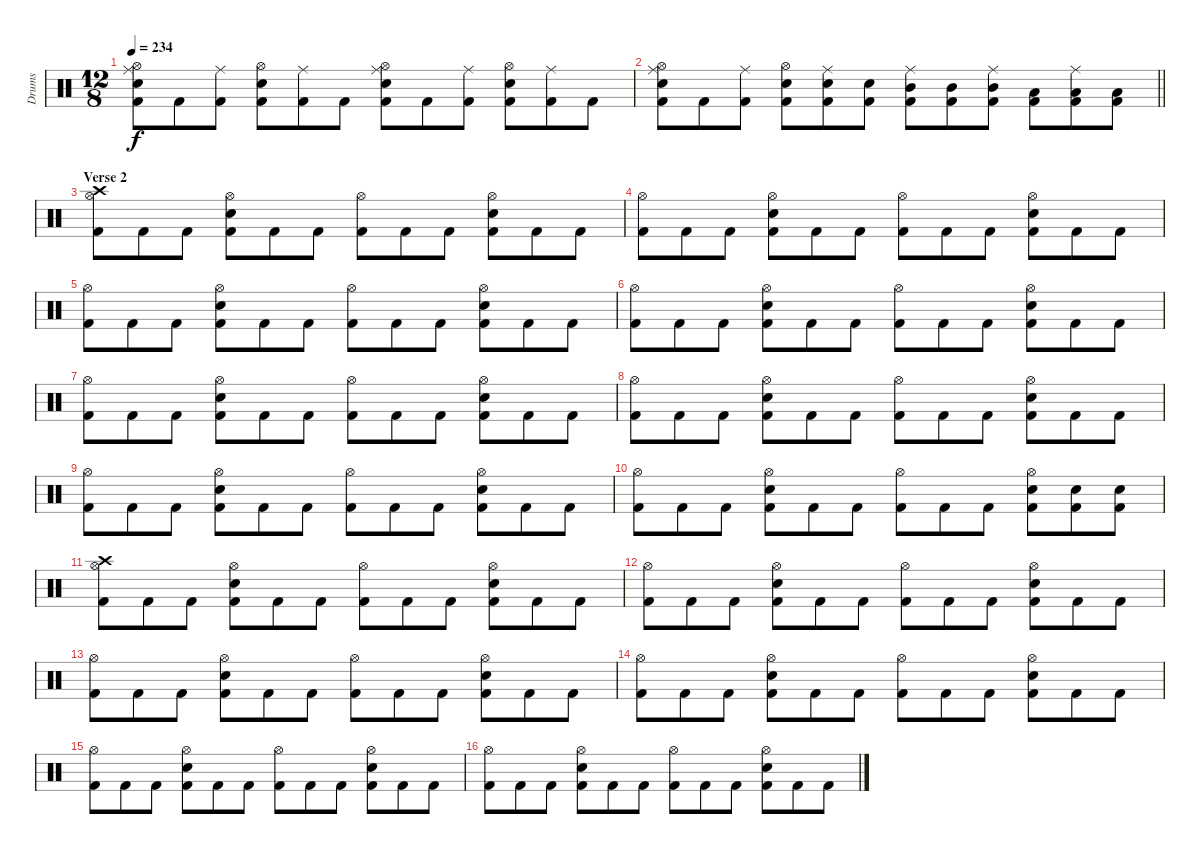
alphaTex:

\track ("Drums" "Drums") {instrument percussion}
\staff {score}
\articulation defaults
\ts (12 8)
\tempo 234
\clef neutral
\ks c
("Ride (middle)" "Hi-Hat (open)" "Snare (hit) 2" "Kick (hit) 2").8{dy f} "Kick (hit) 2".8 ("Ride (middle)" "Kick (hit) 2").8 ("Hi-Hat (open)" "Snare (hit) 2" "Kick (hit) 2").8 ("Ride (middle)" "Kick (hit) 2").8 "Kick (hit) 2".8 ("Ride (middle)" "Hi-Hat (open)" "Snare (hit) 2" "Kick (hit) 2").8 "Kick (hit) 2".8 ("Ride (middle)" "Kick (hit) 2").8 ("Hi-Hat (open)" "Snare (hit) 2" "Kick (hit) 2").8 ("Ride (middle)" "Kick (hit) 2").8 "Kick (hit) 2".8 |
\barLineRight lightlight
("Ride (middle)" "Hi-Hat (open)" "Snare (hit) 2" "Kick (hit) 2").8 "Kick (hit) 2".8 ("Ride (middle)" "Kick (hit) 2").8 ("Hi-Hat (open)" "Snare (hit) 2" "Kick (hit) 2").8 ("Ride (middle)" "Snare (hit) 2" "Kick (hit) 2").8 ("Snare (hit) 2" "Kick (hit) 2").8 ("Ride (middle)" "Mid Tom (hit)" "Kick (hit) 2").8 ("Mid Tom (hit)" "Kick (hit) 2").8 ("Ride (middle)" "Mid Tom (hit)" "Kick (hit) 2").8 ("Low Tom (hit)" "Kick (hit) 2").8 ("Ride (middle)" "Low Tom (hit)" "Kick (hit) 2").8 ("Low Tom (hit)" "Kick (hit) 2").8 |
\section ("" "Verse 2")
("Crash high (hit)" "Hi-Hat (open)" "Kick (hit) 2").8 "Kick (hit) 2".8 "Kick (hit) 2".8 ("Hi-Hat (open)" "Snare (hit) 2" "Kick (hit) 2").8 "Kick (hit) 2".8 "Kick (hit) 2".8 ("Hi-Hat (open)" "Kick (hit) 2").8 "Kick (hit) 2".8 "Kick (hit) 2".8 ("Hi-Hat (open)" "Snare (hit) 2" "Kick (hit) 2").8 "Kick (hit) 2".8 "Kick (hit) 2".8 |
("Hi-Hat (open)" "Kick (hit) 2").8 "Kick (hit) 2".8 "Kick (hit) 2".8 ("Hi-Hat (open)" "Snare (hit) 2" "Kick (hit) 2").8 "Kick (hit) 2".8 "Kick (hit) 2".8 ("Hi-Hat (open)" "Kick (hit) 2").8 "Kick (hit) 2".8 "Kick (hit) 2".8 ("Hi-Hat (open)" "Snare (hit) 2" "Kick (hit) 2").8 "Kick (hit) 2".8 "Kick (hit) 2".8 |
("Hi-Hat (open)" "Kick (hit) 2").8 "Kick (hit) 2".8 "Kick (hit) 2".8 ("Hi-Hat (open)" "Snare (hit) 2" "Kick (hit) 2").8 "Kick (hit) 2".8 "Kick (hit) 2".8 ("Hi-Hat (open)" "Kick (hit) 2").8 "Kick (hit) 2".8 "Kick (hit) 2".8 ("Hi-Hat (open)" "Snare (hit) 2" "Kick (hit) 2").8 "Kick (hit) 2".8 "Kick (hit) 2".8 |
("Hi-Hat (open)" "Kick (hit) 2").8 "Kick (hit) 2".8 "Kick (hit) 2".8 ("Hi-Hat (open)" "Snare (hit) 2" "Kick (hit) 2").8 "Kick (hit) 2".8 "Kick (hit) 2".8 ("Hi-Hat (open)" "Kick (hit) 2").8 "Kick (hit) 2".8 "Kick (hit) 2".8 ("Hi-Hat (open)" "Snare (hit) 2" "Kick (hit) 2").8 "Kick (hit) 2".8 "Kick (hit) 2".8 |
("Hi-Hat (open)" "Kick (hit) 2").8 "Kick (hit) 2".8 "Kick (hit) 2".8 ("Hi-Hat (open)" "Snare (hit) 2" "Kick (hit) 2").8 "Kick (hit) 2".8 "Kick (hit) 2".8 ("Hi-Hat (open)" "Kick (hit) 2").8 "Kick (hit) 2".8 "Kick (hit) 2".8 ("Hi-Hat (open)" "Snare (hit) 2" "Kick (hit) 2").8 "Kick (hit) 2".8 "Kick (hit) 2".8 |
("Hi-Hat (open)" "Kick (hit) 2").8 "Kick (hit) 2".8 "Kick (hit) 2".8 ("Hi-Hat (open)" "Snare (hit) 2" "Kick (hit) 2").8 "Kick (hit) 2".8 "Kick (hit) 2".8 ("Hi-Hat (open)" "Kick (hit) 2").8 "Kick (hit) 2".8 "Kick (hit) 2".8 ("Hi-Hat (open)" "Snare (hit) 2" "Kick (hit) 2").8 "Kick (hit) 2".8 "Kick (hit) 2".8 |
("Hi-Hat (open)" "Kick (hit) 2").8 "Kick (hit) 2".8 "Kick (hit) 2".8 ("Hi-Hat (open)" "Snare (hit) 2" "Kick (hit) 2").8 "Kick (hit) 2".8 "Kick (hit) 2".8 ("Hi-Hat (open)" "Kick (hit) 2").8 "Kick (hit) 2".8 "Kick (hit) 2".8 ("Hi-Hat (open)" "Snare (hit) 2" "Kick (hit) 2").8 "Kick (hit) 2".8 "Kick (hit) 2".8 |
("Hi-Hat (open)" "Kick (hit) 2").8 "Kick (hit) 2".8 "Kick (hit) 2".8 ("Hi-Hat (open)" "Snare (hit) 2" "Kick (hit) 2").8 "Kick (hit) 2".8 "Kick (hit) 2".8 ("Hi-Hat (open)" "Kick (hit) 2").8 "Kick (hit) 2".8 "Kick (hit) 2".8 ("Hi-Hat (open)" "Snare (hit) 2" "Kick (hit) 2").8 ("Snare (hit) 2" "Kick (hit) 2").8 ("Snare (hit) 2" "Kick (hit) 2").8 |
("Crash high (hit)" "Hi-Hat (open)" "Kick (hit) 2").8 "Kick (hit) 2".8 "Kick (hit) 2".8 ("Hi-Hat (open)" "Snare (hit) 2" "Kick (hit) 2").8 "Kick (hit) 2".8 "Kick (hit) 2".8 ("Hi-Hat (open)" "Kick (hit) 2").8 "Kick (hit) 2".8 "Kick (hit) 2".8 ("Hi-Hat (open)" "Snare (hit) 2" "Kick (hit) 2").8 "Kick (hit) 2".8 "Kick (hit) 2".8 |
("Hi-Hat (open)" "Kick (hit) 2").8 "Kick (hit) 2".8 "Kick (hit) 2".8 ("Hi-Hat (open)" "Snare (hit) 2" "Kick (hit) 2").8 "Kick (hit) 2".8 "Kick (hit) 2".8 ("Hi-Hat (open)" "Kick (hit) 2").8 "Kick (hit) 2".8 "Kick (hit) 2".8 ("Hi-Hat (open)" "Snare (hit) 2" "Kick (hit) 2").8 "Kick (hit) 2".8 "Kick (hit) 2".8 |
("Hi-Hat (open)" "Kick (hit) 2").8 "Kick (hit) 2".8 "Kick (hit) 2".8 ("Hi-Hat (open)" "Snare (hit) 2" "Kick (hit) 2").8 "Kick (hit) 2".8 "Kick (hit) 2".8 ("Hi-Hat (open)" "Kick (hit) 2").8 "Kick (hit) 2".8 "Kick (hit) 2".8 ("Hi-Hat (open)" "Snare (hit) 2" "Kick (hit) 2").8 "Kick (hit) 2".8 "Kick (hit) 2".8 |
("Hi-Hat (open)" "Kick (hit) 2").8 "Kick (hit) 2".8 "Kick (hit) 2".8 ("Hi-Hat (open)" "Snare (hit) 2" "Kick (hit) 2").8 "Kick (hit) 2".8 "Kick (hit) 2".8 ("Hi-Hat (open)" "Kick (hit) 2").8 "Kick (hit) 2".8 "Kick (hit) 2".8 ("Hi-Hat (open)" "Snare (hit) 2" "Kick (hit) 2").8 "Kick (hit) 2".8 "Kick (hit) 2".8 |
("Hi-Hat (open)" "Kick (hit) 2").8 "Kick (hit) 2".8 "Kick (hit) 2".8 ("Hi-Hat (open)" "Snare (hit) 2" "Kick (hit) 2").8 "Kick (hit) 2".8 "Kick (hit) 2".8 ("Hi-Hat (open)" "Kick (hit) 2").8 "Kick (hit) 2".8 "Kick (hit) 2".8 ("Hi-Hat (open)" "Snare (hit) 2" "Kick (hit) 2").8 "Kick (hit) 2".8 "Kick (hit) 2".8 |
("Hi-Hat (open)" "Kick (hit) 2").8 "Kick (hit) 2".8 "Kick (hit) 2".8 ("Hi-Hat (open)" "Snare (hit) 2" "Kick (hit) 2").8 "Kick (hit) 2".8 "Kick (hit) 2".8 ("Hi-Hat (open)" "Kick (hit) 2").8 "Kick (hit) 2".8 "Kick (hit) 2".8 ("Hi-Hat (open)" "Snare (hit) 2" "Kick (hit) 2").8 "Kick (hit) 2".8 "Kick (hit) 2".8
